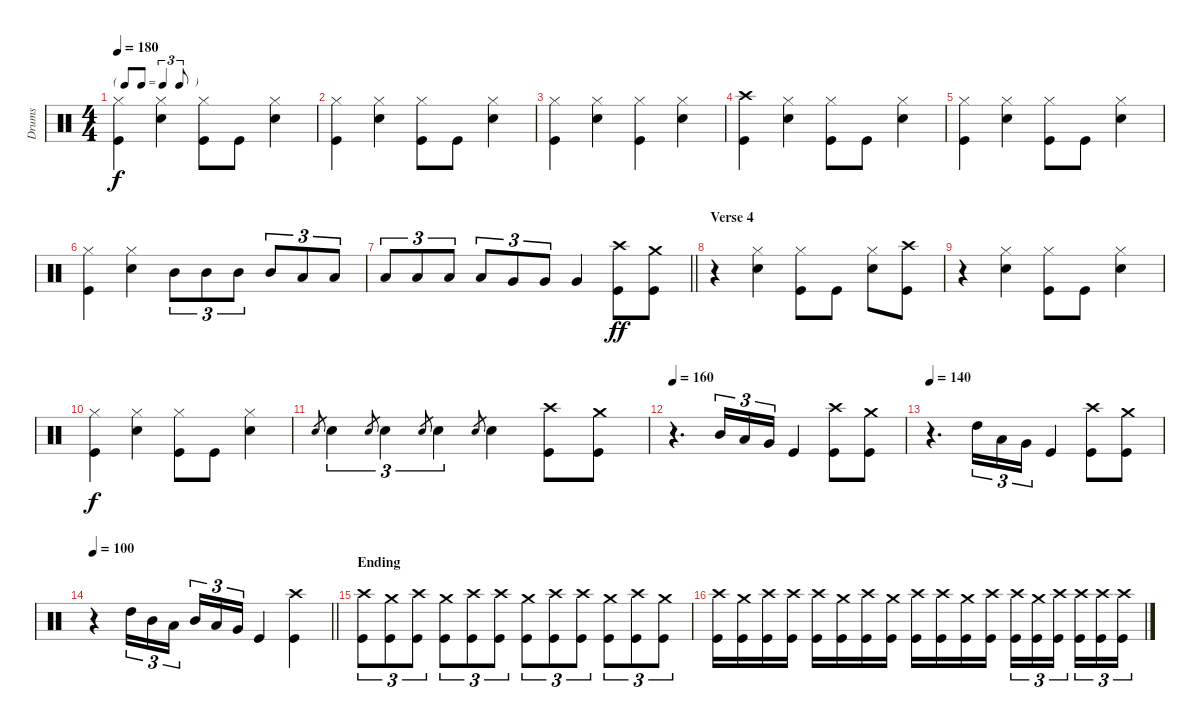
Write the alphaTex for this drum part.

\track ("Drums" "Drums") {instrument percussion}
\staff {score}
\articulation defaults
\ts (4 4)
\tf triplet8th
\tempo 180
\clef neutral
\ks c
("Hi-Hat (closed)" "Kick (hit)").4{dy f} ("Snare (hit) 2" "Hi-Hat (closed)").4 ("Kick (hit)" "Hi-Hat (closed)").8 "Kick (hit)".8 ("Snare (hit) 2" "Hi-Hat (closed)").4 |
("Hi-Hat (closed)" "Kick (hit)").4 ("Snare (hit) 2" "Hi-Hat (closed)").4 ("Kick (hit)" "Hi-Hat (closed)").8 "Kick (hit)".8 ("Snare (hit) 2" "Hi-Hat (closed)").4 |
("Hi-Hat (closed)" "Kick (hit)").4 ("Snare (hit) 2" "Hi-Hat (closed)").4 ("Kick (hit)" "Hi-Hat (closed)").4 ("Snare (hit) 2" "Hi-Hat (closed)").4 |
("Crash high (hit)" "Kick (hit)").4 ("Snare (hit) 2" "Hi-Hat (closed)").4 ("Kick (hit)" "Hi-Hat (closed)").8 "Kick (hit)".8 ("Snare (hit) 2" "Hi-Hat (closed)").4 |
("Hi-Hat (closed)" "Kick (hit)").4 ("Snare (hit) 2" "Hi-Hat (closed)").4 ("Kick (hit)" "Hi-Hat (closed)").8 "Kick (hit)".8 ("Snare (hit) 2" "Hi-Hat (closed)").4 |
("Hi-Hat (closed)" "Kick (hit)").4 ("Snare (hit) 2" "Hi-Hat (closed)").4 "Mid Tom (hit)".8{tu (3 2)} "Mid Tom (hit)".8{tu (3 2)} "Mid Tom (hit)".8{tu (3 2)} "Mid Tom (hit)".8{tu (3 2)} "Low Tom (hit)".8{tu (3 2)} "Low Tom (hit)".8{tu (3 2)} |
\barLineRight lightlight "Low Tom (hit)".8{tu (3 2)} "Low Tom (hit)".8{tu (3 2)} "Low Tom (hit)".8{tu (3 2)} "Low Tom (hit)".8{tu (3 2)} "Very Low Tom (hit)".8{tu (3 2)} "Very Low Tom (hit)".8{tu (3 2)} "Very Low Tom (hit)".4
("Kick (hit)" "Crash high (hit)").8{dy ff} ("Crash medium (hit)" "Kick (hit)").8 |
\section ("" "Verse 4")
r.4 ("Snare (hit) 2" "Hi-Hat (closed)").4 ("Kick (hit)" "Hi-Hat (closed)").8 "Kick (hit)".8 ("Snare (hit) 2" "Hi-Hat (closed)").8 ("Crash high (hit)" "Kick (hit)").8 |
r.4 ("Snare (hit) 2" "Hi-Hat (closed)").4 ("Kick (hit)" "Hi-Hat (closed)").8 "Kick (hit)".8 ("Snare (hit) 2" "Hi-Hat (closed)").4 |
("Hi-Hat (closed)" "Kick (hit)").4{dy f} ("Snare (hit) 2" "Hi-Hat (closed)").4 ("Kick (hit)" "Hi-Hat (closed)").8 "Kick (hit)".8 ("Snare (hit) 2" "Hi-Hat (closed)").4 |
"Snare (hit) 2".8{gr} "Snare (hit) 2".4{tu (3 2)} "Snare (hit) 2".8{gr} "Snare (hit) 2".4{tu (3 2)} "Snare (hit) 2".8{gr} "Snare (hit) 2".4{tu (3 2)} "Snare (hit) 2".8{gr} "Snare (hit) 2".4 ("Kick (hit)" "Crash high (hit)").8 ("Crash medium (hit)" "Kick (hit)").8 |
\tempo 160
r.4{d} "Mid Tom (hit)".16{tu (3 2)} "Low Tom (hit)".16{tu (3 2)} "Very Low Tom (hit)".16{tu (3 2)} "Kick (hit)".4 ("Crash high (hit)" "Kick (hit)").8 ("Crash medium (hit)" "Kick (hit)").8 |
\tempo 140
r.4{d} "High Tom (hit)".16{tu (3 2)} "Low Tom (hit)".16{tu (3 2)} "Very Low Tom (hit)".16{tu (3 2)} "Kick (hit)".4 ("Kick (hit)" "Crash high (hit)").8 ("Crash medium (hit)" "Kick (hit)").8 |
\tempo 100
\barLineRight lightlight
r.4 "High Tom (hit)".16{tu (3 2)} "Mid Tom (hit)".16{tu (3 2)} "Low Tom (hit)".16{tu (3 2) beam splitsecondary} "Mid Tom (hit)".16{tu (3 2)} "Low Tom (hit)".16{tu (3 2)} "Very Low Tom (hit)".16{tu (3 2)} "Kick (hit)".4 ("Kick (hit)" "Crash high (hit)").4 |
\section ("" "Ending")
("Kick (hit)" "Crash high (hit)").8{tu (3 2)} ("Kick (hit)" "Crash medium (hit)").8{tu (3 2)} ("Kick (hit)" "Crash high (hit)").8{tu (3 2)} ("Kick (hit)" "Crash medium (hit)").8{tu (3 2)} ("Kick (hit)" "Crash high (hit)").8{tu (3 2)} ("Kick (hit)" "Crash high (hit)").8{tu (3 2)} ("Kick (hit)" "Crash medium (hit)").8{tu (3 2)} ("Kick (hit)" "Crash high (hit)").8{tu (3 2)} ("Kick (hit)" "Crash high (hit)").8{tu (3 2)} ("Kick (hit)" "Crash medium (hit)").8{tu (3 2)} ("Kick (hit)" "Crash high (hit)").8{tu (3 2)} ("Kick (hit)" "Crash medium (hit)").8{tu (3 2)} |
("Kick (hit)" "Crash high (hit)").16 ("Kick (hit)" "Crash medium (hit)").16 ("Kick (hit)" "Crash high (hit)").16 ("Kick (hit)" "Crash high (hit)").16 ("Kick (hit)" "Crash high (hit)").16 ("Kick (hit)" "Crash medium (hit)").16 ("Kick (hit)" "Crash high (hit)").16 ("Kick (hit)" "Crash medium (hit)").16 ("Kick (hit)" "Crash high (hit)").16 ("Kick (hit)" "Crash high (hit)").16 ("Kick (hit)" "Crash medium (hit)").16 ("Kick (hit)" "Crash high (hit)").16 ("Kick (hit)" "Crash high (hit)").16{tu (3 2)} ("Kick (hit)" "Crash medium (hit)").16{tu (3 2)} ("Kick (hit)" "Crash high (hit)").16{tu (3 2) beam splitsecondary} ("Kick (hit)" "Crash high (hit)").16{tu (3 2)} ("Kick (hit)" "Crash high (hit)").16{tu (3 2)} ("Kick (hit)" "Crash high (hit)").16{tu (3 2)}
